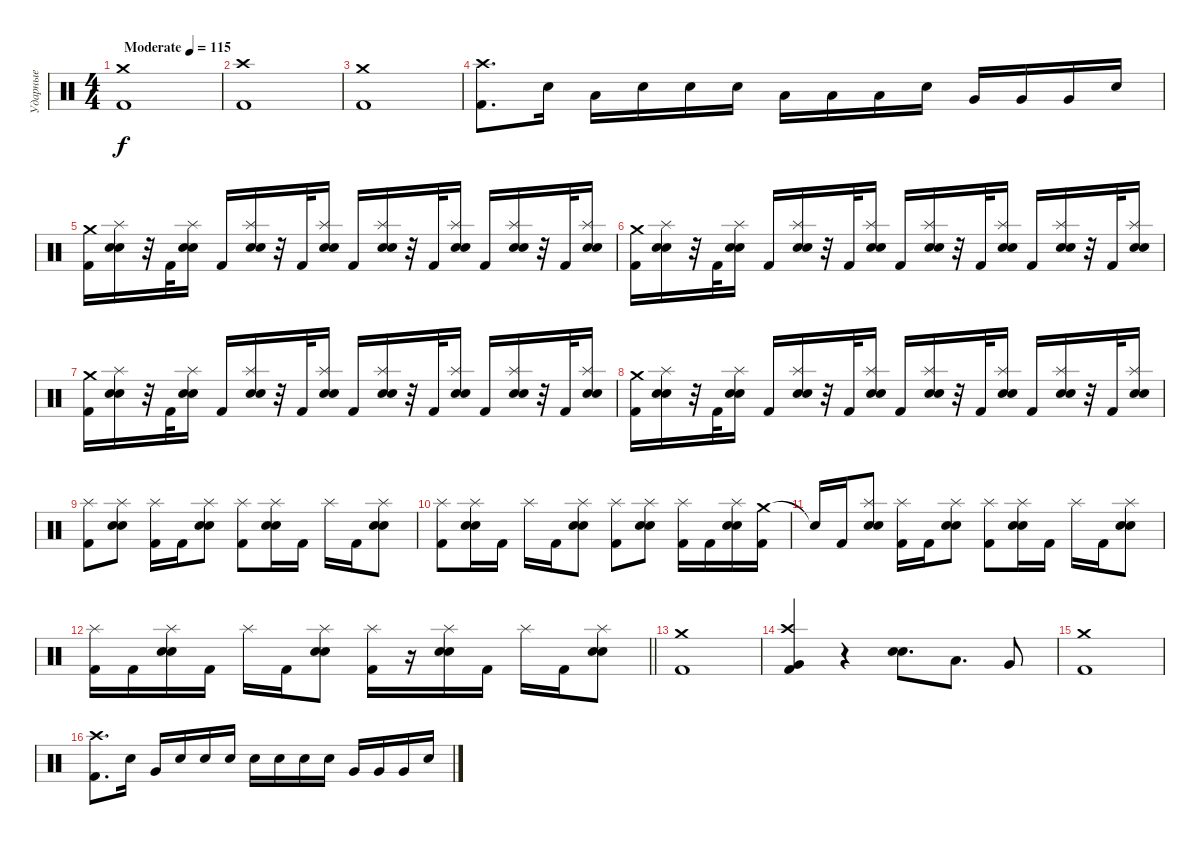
\track ("Ударные" "Ударные") {instrument percussion}
\staff {score}
\articulation defaults
\ts (4 4)
\tempo (115 "Moderate")
\clef neutral
\ks c
("Crash medium (hit)" "Kick (hit) 2").1{dy f} |
("Crash high (hit)" "Kick (hit) 2").1 |
("Crash medium (hit)" "Kick (hit) 2").1 |
("Crash high (hit)" "Kick (hit) 2").8{d} "Electric Snare (hit)".16 "Low Tom (hit)".16 "Electric Snare (hit)".16 "Electric Snare (hit)".16 "Electric Snare (hit)".16 "Low Tom (hit)".16 "Low Tom (hit)".16 "Low Tom (hit)".16 "Electric Snare (hit)".16 "Very Low Tom (hit)".16 "Very Low Tom (hit)".16 "Very Low Tom (hit)".16 "Electric Snare (hit)".16 |
("Crash medium (hit)" "Kick (hit) 2").16 ("Splash (hit)" "Electric Snare (hit)" "Snare (hit) 2").16 r.32 "Kick (hit) 2".32 ("Splash (hit)" "Electric Snare (hit)" "Snare (hit) 2").16 "Kick (hit) 2".16 ("Splash (hit)" "Electric Snare (hit)" "Snare (hit) 2").16 r.32 "Kick (hit) 2".32 ("Splash (hit)" "Electric Snare (hit)" "Snare (hit) 2").16 "Kick (hit) 2".16 ("Splash (hit)" "Electric Snare (hit)" "Snare (hit) 2").16 r.32 "Kick (hit) 2".32 ("Splash (hit)" "Electric Snare (hit)" "Snare (hit) 2").16 "Kick (hit) 2".16 ("Splash (hit)" "Electric Snare (hit)" "Snare (hit) 2").16 r.32 "Kick (hit) 2".32 ("Splash (hit)" "Electric Snare (hit)" "Snare (hit) 2").16 |
("Crash medium (hit)" "Kick (hit) 2").16 ("Splash (hit)" "Electric Snare (hit)" "Snare (hit) 2").16 r.32 "Kick (hit) 2".32 ("Splash (hit)" "Electric Snare (hit)" "Snare (hit) 2").16 "Kick (hit) 2".16 ("Splash (hit)" "Electric Snare (hit)" "Snare (hit) 2").16 r.32 "Kick (hit) 2".32 ("Splash (hit)" "Electric Snare (hit)" "Snare (hit) 2").16 "Kick (hit) 2".16 ("Splash (hit)" "Electric Snare (hit)" "Snare (hit) 2").16 r.32 "Kick (hit) 2".32 ("Splash (hit)" "Electric Snare (hit)" "Snare (hit) 2").16 "Kick (hit) 2".16 ("Splash (hit)" "Electric Snare (hit)" "Snare (hit) 2").16 r.32 "Kick (hit) 2".32 ("Splash (hit)" "Electric Snare (hit)" "Snare (hit) 2").16 |
("Crash medium (hit)" "Kick (hit) 2").16 ("Splash (hit)" "Electric Snare (hit)" "Snare (hit) 2").16 r.32 "Kick (hit) 2".32 ("Splash (hit)" "Electric Snare (hit)" "Snare (hit) 2").16 "Kick (hit) 2".16 ("Splash (hit)" "Electric Snare (hit)" "Snare (hit) 2").16 r.32 "Kick (hit) 2".32 ("Splash (hit)" "Electric Snare (hit)" "Snare (hit) 2").16 "Kick (hit) 2".16 ("Splash (hit)" "Electric Snare (hit)" "Snare (hit) 2").16 r.32 "Kick (hit) 2".32 ("Splash (hit)" "Electric Snare (hit)" "Snare (hit) 2").16 "Kick (hit) 2".16 ("Splash (hit)" "Electric Snare (hit)" "Snare (hit) 2").16 r.32 "Kick (hit) 2".32 ("Splash (hit)" "Electric Snare (hit)" "Snare (hit) 2").16 |
("Crash medium (hit)" "Kick (hit) 2").16 ("Splash (hit)" "Electric Snare (hit)" "Snare (hit) 2").16 r.32 "Kick (hit) 2".32 ("Splash (hit)" "Electric Snare (hit)" "Snare (hit) 2").16 "Kick (hit) 2".16 ("Splash (hit)" "Electric Snare (hit)" "Snare (hit) 2").16 r.32 "Kick (hit) 2".32 ("Splash (hit)" "Electric Snare (hit)" "Snare (hit) 2").16 "Kick (hit) 2".16 ("Splash (hit)" "Electric Snare (hit)" "Snare (hit) 2").16 r.32 "Kick (hit) 2".32 ("Splash (hit)" "Electric Snare (hit)" "Snare (hit) 2").16 "Kick (hit) 2".16 ("Splash (hit)" "Electric Snare (hit)" "Snare (hit) 2").16 r.32 "Kick (hit) 2".32 ("Splash (hit)" "Electric Snare (hit)" "Snare (hit) 2").16 |
("Splash (hit)" "Kick (hit) 2").8 ("Splash (hit)" "Electric Snare (hit)" "Snare (hit) 2").8 ("Splash (hit)" "Kick (hit) 2").16 "Kick (hit) 2".16 ("Splash (hit)" "Electric Snare (hit)" "Snare (hit) 2").8 ("Splash (hit)" "Kick (hit) 2").8 ("Splash (hit)" "Electric Snare (hit)" "Snare (hit) 2").16 "Kick (hit) 2".16 "Splash (hit)".16 "Kick (hit) 2".16 ("Splash (hit)" "Electric Snare (hit)" "Snare (hit) 2").8 |
("Splash (hit)" "Kick (hit) 2").8 ("Splash (hit)" "Electric Snare (hit)" "Snare (hit) 2").16 "Kick (hit) 2".16 "Splash (hit)".16 "Kick (hit) 2".16 ("Splash (hit)" "Electric Snare (hit)" "Snare (hit) 2").8 ("Splash (hit)" "Kick (hit) 2").8 ("Splash (hit)" "Electric Snare (hit)" "Snare (hit) 2").8 ("Splash (hit)" "Kick (hit) 2").16 "Kick (hit) 2".16 ("Splash (hit)" "Electric Snare (hit)" "Snare (hit) 2").16 ("Crash medium (hit)" "Kick (hit) 2").16 |
"Snare (hit)"{t}.16 "Kick (hit) 2".16 ("Splash (hit)" "Electric Snare (hit)" "Snare (hit) 2").8 ("Splash (hit)" "Kick (hit) 2").16 "Kick (hit) 2".16 ("Splash (hit)" "Electric Snare (hit)" "Snare (hit) 2").8 ("Splash (hit)" "Kick (hit) 2").8 ("Splash (hit)" "Electric Snare (hit)" "Snare (hit) 2").16 "Kick (hit) 2".16 "Splash (hit)".16 "Kick (hit) 2".16 ("Splash (hit)" "Electric Snare (hit)" "Snare (hit) 2").8 |
\barLineRight lightlight
("Splash (hit)" "Kick (hit) 2").16 "Kick (hit) 2".16 ("Splash (hit)" "Electric Snare (hit)" "Snare (hit) 2").16 "Kick (hit) 2".16 "Splash (hit)".16 "Kick (hit) 2".16 ("Splash (hit)" "Electric Snare (hit)" "Snare (hit) 2").8 ("Splash (hit)" "Kick (hit) 2").16 r.16 ("Splash (hit)" "Electric Snare (hit)" "Snare (hit) 2").16 "Kick (hit) 2".16 "Splash (hit)".16 "Kick (hit) 2".16 ("Splash (hit)" "Electric Snare (hit)" "Snare (hit) 2").8 |
("Crash medium (hit)" "Kick (hit) 2").1 |
("Crash high (hit)" "Very Low Tom (hit)" "Kick (hit) 2").4 r.4 ("Electric Snare (hit)" "Snare (hit) 2").8{d} "Low Tom (hit)".8{d} "Very Low Tom (hit)".8 |
("Crash medium (hit)" "Kick (hit) 2").1 |
("Crash high (hit)" "Kick (hit) 2").8{d} "Electric Snare (hit)".16 "Very Low Tom (hit)".16 "Electric Snare (hit)".16 "Electric Snare (hit)".16 "Electric Snare (hit)".16 "Electric Snare (hit)".16 "Electric Snare (hit)".16 "Electric Snare (hit)".16 "Electric Snare (hit)".16 "Very Low Tom (hit)".16 "Very Low Tom (hit)".16 "Very Low Tom (hit)".16 "Electric Snare (hit)".16
